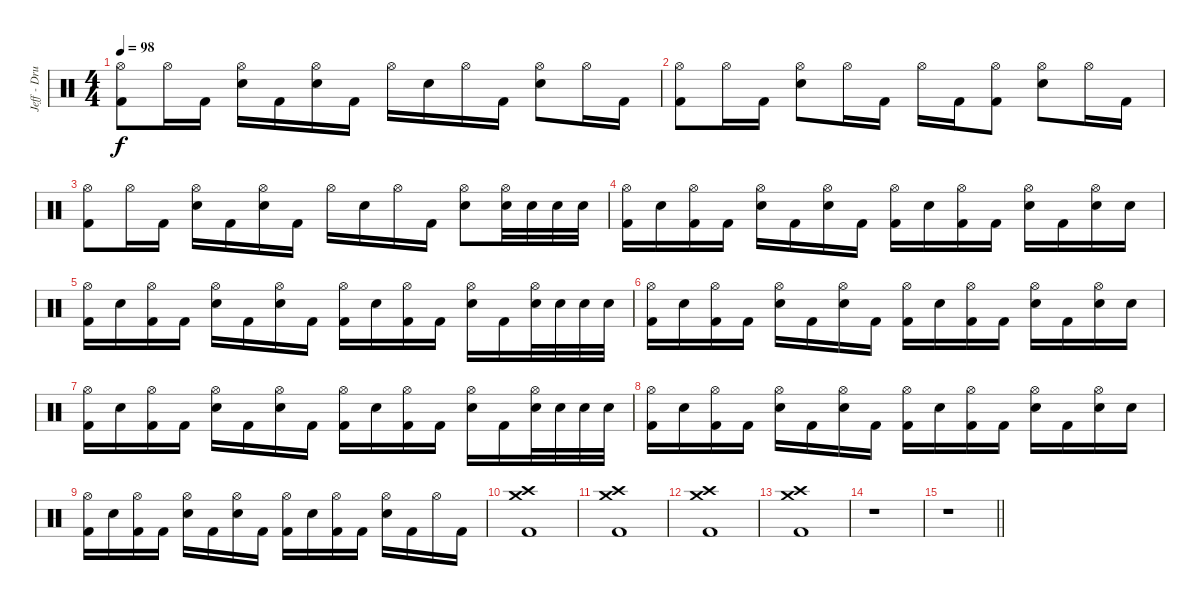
\track ("Jeff - Drums" "Jeff - Dru") {instrument percussion}
\staff {score}
\articulation defaults
\ts (4 4)
\tempo 98
\clef neutral
\ks c
("Hi-Hat (open)" "Kick (hit) 2").8{dy f} "Hi-Hat (open)".16 "Kick (hit) 2".16 ("Hi-Hat (open)" "Electric Snare (hit)").16 "Kick (hit) 2".16 ("Hi-Hat (open)" "Electric Snare (hit)").16 "Kick (hit) 2".16 "Hi-Hat (open)".16 "Electric Snare (hit)".16 "Hi-Hat (open)".16 "Kick (hit) 2".16 ("Hi-Hat (open)" "Electric Snare (hit)").8 "Hi-Hat (open)".16 "Kick (hit) 2".16 |
("Hi-Hat (open)" "Kick (hit) 2").8 "Hi-Hat (open)".16 "Kick (hit) 2".16 ("Hi-Hat (open)" "Electric Snare (hit)").8 "Hi-Hat (open)".16 "Kick (hit) 2".16 "Hi-Hat (open)".16 "Kick (hit) 2".16 ("Hi-Hat (open)" "Kick (hit) 2").8 ("Hi-Hat (open)" "Electric Snare (hit)").8 "Hi-Hat (open)".16 "Kick (hit) 2".16 |
("Hi-Hat (open)" "Kick (hit) 2").8 "Hi-Hat (open)".16 "Kick (hit) 2".16 ("Hi-Hat (open)" "Electric Snare (hit)").16 "Kick (hit) 2".16 ("Hi-Hat (open)" "Electric Snare (hit)").16 "Kick (hit) 2".16 "Hi-Hat (open)".16 "Electric Snare (hit)".16 "Hi-Hat (open)".16 "Kick (hit) 2".16 ("Hi-Hat (open)" "Electric Snare (hit)").8 ("Hi-Hat (open)" "Electric Snare (hit)").32 "Electric Snare (hit)".32 "Electric Snare (hit)".32 "Electric Snare (hit)".32 |
("Hi-Hat (open)" "Kick (hit) 2").16 "Electric Snare (hit)".16 ("Hi-Hat (open)" "Kick (hit) 2").16 "Kick (hit) 2".16 ("Hi-Hat (open)" "Electric Snare (hit)").16 "Kick (hit) 2".16 ("Hi-Hat (open)" "Electric Snare (hit)").16 "Kick (hit) 2".16 ("Hi-Hat (open)" "Kick (hit) 2").16 "Electric Snare (hit)".16 ("Hi-Hat (open)" "Kick (hit) 2").16 "Kick (hit) 2".16 ("Hi-Hat (open)" "Electric Snare (hit)").16 "Kick (hit) 2".16 ("Hi-Hat (open)" "Electric Snare (hit)").16 "Electric Snare (hit)".16 |
("Hi-Hat (open)" "Kick (hit) 2").16 "Electric Snare (hit)".16 ("Hi-Hat (open)" "Kick (hit) 2").16 "Kick (hit) 2".16 ("Hi-Hat (open)" "Electric Snare (hit)").16 "Kick (hit) 2".16 ("Hi-Hat (open)" "Electric Snare (hit)").16 "Kick (hit) 2".16 ("Hi-Hat (open)" "Kick (hit) 2").16 "Electric Snare (hit)".16 ("Hi-Hat (open)" "Kick (hit) 2").16 "Kick (hit) 2".16 ("Hi-Hat (open)" "Electric Snare (hit)").16 "Kick (hit) 2".16 ("Hi-Hat (open)" "Electric Snare (hit)").32 "Electric Snare (hit)".32 "Electric Snare (hit)".32 "Electric Snare (hit)".32 |
("Hi-Hat (open)" "Kick (hit) 2").16 "Electric Snare (hit)".16 ("Hi-Hat (open)" "Kick (hit) 2").16 "Kick (hit) 2".16 ("Hi-Hat (open)" "Electric Snare (hit)").16 "Kick (hit) 2".16 ("Hi-Hat (open)" "Electric Snare (hit)").16 "Kick (hit) 2".16 ("Hi-Hat (open)" "Kick (hit) 2").16 "Electric Snare (hit)".16 ("Hi-Hat (open)" "Kick (hit) 2").16 "Kick (hit) 2".16 ("Hi-Hat (open)" "Electric Snare (hit)").16 "Kick (hit) 2".16 ("Hi-Hat (open)" "Electric Snare (hit)").16 "Electric Snare (hit)".16 |
("Hi-Hat (open)" "Kick (hit) 2").16 "Electric Snare (hit)".16 ("Hi-Hat (open)" "Kick (hit) 2").16 "Kick (hit) 2".16 ("Hi-Hat (open)" "Electric Snare (hit)").16 "Kick (hit) 2".16 ("Hi-Hat (open)" "Electric Snare (hit)").16 "Kick (hit) 2".16 ("Hi-Hat (open)" "Kick (hit) 2").16 "Electric Snare (hit)".16 ("Hi-Hat (open)" "Kick (hit) 2").16 "Kick (hit) 2".16 ("Hi-Hat (open)" "Electric Snare (hit)").16 "Kick (hit) 2".16 ("Hi-Hat (open)" "Electric Snare (hit)").32 "Electric Snare (hit)".32 "Electric Snare (hit)".32 "Electric Snare (hit)".32 |
("Hi-Hat (open)" "Kick (hit) 2").16 "Electric Snare (hit)".16 ("Hi-Hat (open)" "Kick (hit) 2").16 "Kick (hit) 2".16 ("Hi-Hat (open)" "Electric Snare (hit)").16 "Kick (hit) 2".16 ("Hi-Hat (open)" "Electric Snare (hit)").16 "Kick (hit) 2".16 ("Hi-Hat (open)" "Kick (hit) 2").16 "Electric Snare (hit)".16 ("Hi-Hat (open)" "Kick (hit) 2").16 "Kick (hit) 2".16 ("Hi-Hat (open)" "Electric Snare (hit)").16 "Kick (hit) 2".16 ("Hi-Hat (open)" "Electric Snare (hit)").16 "Electric Snare (hit)".16 |
("Hi-Hat (open)" "Kick (hit) 2").16 "Electric Snare (hit)".16 ("Hi-Hat (open)" "Kick (hit) 2").16 "Kick (hit) 2".16 ("Hi-Hat (open)" "Electric Snare (hit)").16 "Kick (hit) 2".16 ("Hi-Hat (open)" "Electric Snare (hit)").16 "Kick (hit) 2".16 ("Hi-Hat (open)" "Kick (hit) 2").16 "Electric Snare (hit)".16 ("Hi-Hat (open)" "Kick (hit) 2").16 "Kick (hit) 2".16 ("Hi-Hat (open)" "Electric Snare (hit)").16 "Kick (hit) 2".16 "Hi-Hat (open)".16 "Kick (hit) 2".16 |
("Crash high (hit)" "Crash medium (hit)" "Kick (hit) 2").1 |
("Crash high (hit)" "Crash medium (hit)" "Kick (hit) 2").1 |
("Crash high (hit)" "Crash medium (hit)" "Kick (hit) 2").1 |
("Crash high (hit)" "Crash medium (hit)" "Kick (hit) 2").1 |
r.1 |
\barLineRight lightlight
r.1
